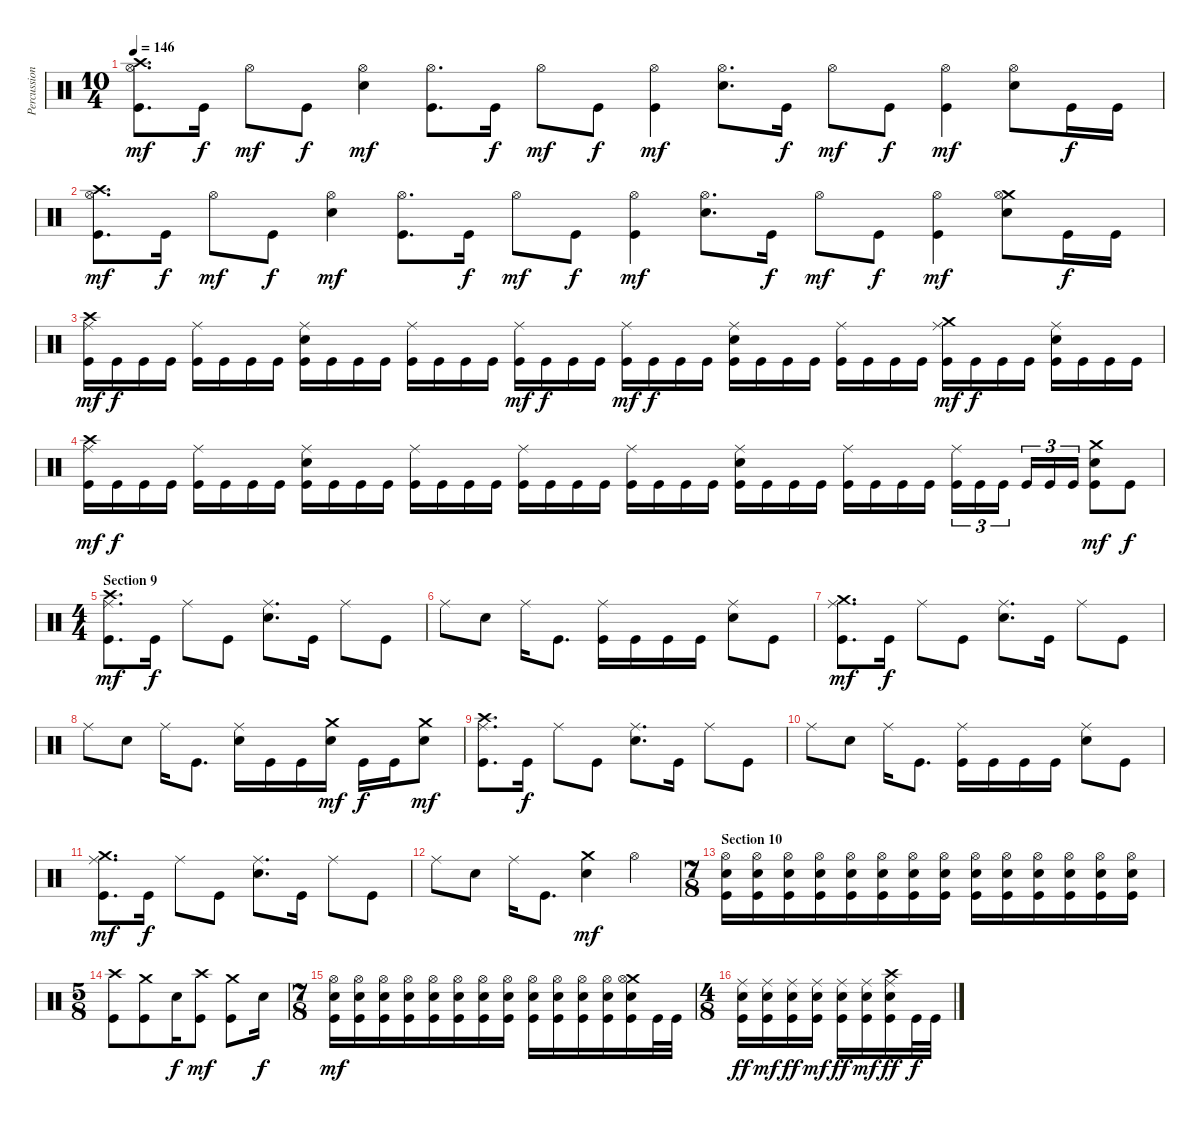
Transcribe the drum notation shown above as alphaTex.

\track ("Percussion" "Percussion") {instrument percussion}
\staff {score}
\articulation defaults
\ts (10 4)
\tempo 146
\clef neutral
\ks c
("Crash high (hit)" "Hi-Hat (open)" "Kick (hit)").8{d dy mf} "Kick (hit)".16{dy f} "Hi-Hat (open)".8{dy mf} "Kick (hit)".8{dy f} ("Hi-Hat (open)" "Electric Snare (hit)").4{dy mf} ("Hi-Hat (open)" "Kick (hit)").8{d} "Kick (hit)".16{dy f} "Hi-Hat (open)".8{dy mf} "Kick (hit)".8{dy f} ("Hi-Hat (open)" "Kick (hit)").4{dy mf} ("Hi-Hat (open)" "Electric Snare (hit)").8{d} "Kick (hit)".16{dy f} "Hi-Hat (open)".8{dy mf} "Kick (hit)".8{dy f} ("Hi-Hat (open)" "Kick (hit)").4{dy mf} ("Hi-Hat (open)" "Electric Snare (hit)").8 "Kick (hit)".16{dy f} "Kick (hit)".16 |
("Crash high (hit)" "Hi-Hat (open)" "Kick (hit)").8{d dy mf} "Kick (hit)".16{dy f} "Hi-Hat (open)".8{dy mf} "Kick (hit)".8{dy f} ("Hi-Hat (open)" "Electric Snare (hit)").4{dy mf} ("Hi-Hat (open)" "Kick (hit)").8{d} "Kick (hit)".16{dy f} "Hi-Hat (open)".8{dy mf} "Kick (hit)".8{dy f} ("Hi-Hat (open)" "Kick (hit)").4{dy mf} ("Hi-Hat (open)" "Electric Snare (hit)").8{d} "Kick (hit)".16{dy f} "Hi-Hat (open)".8{dy mf} "Kick (hit)".8{dy f} ("Hi-Hat (open)" "Kick (hit)").4{dy mf} ("Crash medium (hit)" "Hi-Hat (open)" "Electric Snare (hit)").8 "Kick (hit)".16{dy f} "Kick (hit)".16 |
("Crash high (hit)" "Ride (middle)" "Kick (hit)").16{dy mf} "Kick (hit)".16{dy f} "Kick (hit)".16 "Kick (hit)".16 ("Ride (middle)" "Kick (hit)").16 "Kick (hit)".16 "Kick (hit)".16 "Kick (hit)".16 ("Ride (middle)" "Electric Snare (hit)" "Kick (hit)").16 "Kick (hit)".16 "Kick (hit)".16 "Kick (hit)".16 ("Ride (middle)" "Kick (hit)").16 "Kick (hit)".16 "Kick (hit)".16 "Kick (hit)".16 ("Ride (middle)" "Kick (hit)").16{dy mf} "Kick (hit)".16{dy f} "Kick (hit)".16 "Kick (hit)".16 ("Ride (middle)" "Kick (hit)").16{dy mf} "Kick (hit)".16{dy f} "Kick (hit)".16 "Kick (hit)".16 ("Ride (middle)" "Electric Snare (hit)" "Kick (hit)").16 "Kick (hit)".16 "Kick (hit)".16 "Kick (hit)".16 ("Ride (middle)" "Kick (hit)").16 "Kick (hit)".16 "Kick (hit)".16 "Kick (hit)".16 ("Crash medium (hit)" "Ride (middle)" "Kick (hit)").16{dy mf} "Kick (hit)".16{dy f} "Kick (hit)".16 "Kick (hit)".16 ("Ride (middle)" "Electric Snare (hit)" "Kick (hit)").16 "Kick (hit)".16 "Kick (hit)".16 "Kick (hit)".16 |
("Crash high (hit)" "Ride (middle)" "Kick (hit)").16{dy mf} "Kick (hit)".16{dy f} "Kick (hit)".16 "Kick (hit)".16 ("Ride (middle)" "Kick (hit)").16 "Kick (hit)".16 "Kick (hit)".16 "Kick (hit)".16 ("Ride (middle)" "Electric Snare (hit)" "Kick (hit)").16 "Kick (hit)".16 "Kick (hit)".16 "Kick (hit)".16 ("Ride (middle)" "Kick (hit)").16 "Kick (hit)".16 "Kick (hit)".16 "Kick (hit)".16 ("Ride (middle)" "Kick (hit)").16 "Kick (hit)".16 "Kick (hit)".16 "Kick (hit)".16 ("Ride (middle)" "Kick (hit)").16 "Kick (hit)".16 "Kick (hit)".16 "Kick (hit)".16 ("Ride (middle)" "Electric Snare (hit)" "Kick (hit)").16 "Kick (hit)".16 "Kick (hit)".16 "Kick (hit)".16 ("Ride (middle)" "Kick (hit)").16 "Kick (hit)".16 "Kick (hit)".16 "Kick (hit)".16 ("Ride (middle)" "Kick (hit)").16{tu (3 2)} "Kick (hit)".16{tu (3 2)} "Kick (hit)".16{tu (3 2) beam splitsecondary} "Kick (hit)".16{tu (3 2)} "Kick (hit)".16{tu (3 2)} "Kick (hit)".16{tu (3 2)} ("Crash medium (hit)" "Electric Snare (hit)" "Kick (hit)").8{dy mf} "Kick (hit)".8{dy f} |
\ts (4 4)
\section ("" "Section 9")
("Crash high (hit)" "Ride (middle)" "Kick (hit)").8{d dy mf} "Kick (hit)".16{dy f} "Ride (middle)".8 "Kick (hit)".8 ("Ride (middle)" "Electric Snare (hit)").8{d} "Kick (hit)".16 "Ride (middle)".8 "Kick (hit)".8 |
"Ride (middle)".8 "Electric Snare (hit)".8 "Ride (middle)".16 "Kick (hit)".8{d} ("Ride (middle)" "Kick (hit)").16 "Kick (hit)".16 "Kick (hit)".16 "Kick (hit)".16 ("Ride (middle)" "Electric Snare (hit)").8 "Kick (hit)".8 |
("Crash medium (hit)" "Ride (middle)" "Kick (hit)").8{d dy mf} "Kick (hit)".16{dy f} "Ride (middle)".8 "Kick (hit)".8 ("Ride (middle)" "Electric Snare (hit)").8{d} "Kick (hit)".16 "Ride (middle)".8 "Kick (hit)".8 |
"Ride (middle)".8 "Electric Snare (hit)".8 "Ride (middle)".16 "Kick (hit)".8{d} ("Ride (middle)" "Electric Snare (hit)").16 "Kick (hit)".16 "Kick (hit)".16 ("Crash medium (hit)" "Electric Snare (hit)").16{dy mf} "Kick (hit)".16{dy f} "Kick (hit)".16 ("Crash medium (hit)" "Electric Snare (hit)").8{dy mf} |
("Crash high (hit)" "Ride (middle)" "Kick (hit)").8{d} "Kick (hit)".16{dy f} "Ride (middle)".8 "Kick (hit)".8 ("Ride (middle)" "Electric Snare (hit)").8{d} "Kick (hit)".16 "Ride (middle)".8 "Kick (hit)".8 |
"Ride (middle)".8 "Electric Snare (hit)".8 "Ride (middle)".16 "Kick (hit)".8{d} ("Ride (middle)" "Kick (hit)").16 "Kick (hit)".16 "Kick (hit)".16 "Kick (hit)".16 ("Ride (middle)" "Electric Snare (hit)").8 "Kick (hit)".8 |
("Crash medium (hit)" "Ride (middle)" "Kick (hit)").8{d dy mf} "Kick (hit)".16{dy f} "Ride (middle)".8 "Kick (hit)".8 ("Ride (middle)" "Electric Snare (hit)").8{d} "Kick (hit)".16 "Ride (middle)".8 "Kick (hit)".8 |
"Ride (middle)".8 "Electric Snare (hit)".8 "Ride (middle)".16 "Kick (hit)".8{d} ("Crash medium (hit)" "Electric Snare (hit)").4{dy mf} "Hi-Hat (open)".4 |
\ts (7 8)
\section ("" "Section 10")
("Hi-Hat (open)" "Electric Snare (hit)" "Kick (hit)").16 ("Hi-Hat (open)" "Electric Snare (hit)" "Kick (hit)").16 ("Hi-Hat (open)" "Electric Snare (hit)" "Kick (hit)").16 ("Hi-Hat (open)" "Electric Snare (hit)" "Kick (hit)").16 ("Hi-Hat (open)" "Electric Snare (hit)" "Kick (hit)").16 ("Hi-Hat (open)" "Electric Snare (hit)" "Kick (hit)").16 ("Hi-Hat (open)" "Electric Snare (hit)" "Kick (hit)").16 ("Hi-Hat (open)" "Electric Snare (hit)" "Kick (hit)").16 ("Hi-Hat (open)" "Electric Snare (hit)" "Kick (hit)").16 ("Hi-Hat (open)" "Electric Snare (hit)" "Kick (hit)").16 ("Hi-Hat (open)" "Electric Snare (hit)" "Kick (hit)").16 ("Hi-Hat (open)" "Electric Snare (hit)" "Kick (hit)").16 ("Hi-Hat (open)" "Electric Snare (hit)" "Kick (hit)").16 ("Hi-Hat (open)" "Electric Snare (hit)" "Kick (hit)").16 |
\ts (5 8)
("Crash high (hit)" "Kick (hit)").8 ("Crash medium (hit)" "Kick (hit)").8 "Electric Snare (hit)".16{dy f} ("Crash high (hit)" "Kick (hit)").8{dy mf} ("Crash medium (hit)" "Kick (hit)").8 "Electric Snare (hit)".16{dy f} |
\ts (7 8)
("Hi-Hat (open)" "Electric Snare (hit)" "Kick (hit)").16{dy mf} ("Hi-Hat (open)" "Electric Snare (hit)" "Kick (hit)").16 ("Hi-Hat (open)" "Electric Snare (hit)" "Kick (hit)").16 ("Hi-Hat (open)" "Electric Snare (hit)" "Kick (hit)").16 ("Hi-Hat (open)" "Electric Snare (hit)" "Kick (hit)").16 ("Hi-Hat (open)" "Electric Snare (hit)" "Kick (hit)").16 ("Hi-Hat (open)" "Electric Snare (hit)" "Kick (hit)").16 ("Hi-Hat (open)" "Electric Snare (hit)" "Kick (hit)").16 ("Hi-Hat (open)" "Electric Snare (hit)" "Kick (hit)").16 ("Hi-Hat (open)" "Electric Snare (hit)" "Kick (hit)").16 ("Hi-Hat (open)" "Electric Snare (hit)" "Kick (hit)").16 ("Hi-Hat (open)" "Electric Snare (hit)" "Kick (hit)").16 ("Crash medium (hit)" "Hi-Hat (open)" "Electric Snare (hit)" "Kick (hit)").16 "Kick (hit)".32 "Kick (hit)".32 |
\ts (4 8)
("Ride (middle)" "Electric Snare (hit)" "Kick (hit)").16{dy ff} ("Ride (middle)" "Electric Snare (hit)" "Kick (hit)").16{dy mf} ("Ride (middle)" "Electric Snare (hit)" "Kick (hit)").16{dy ff} ("Ride (middle)" "Electric Snare (hit)" "Kick (hit)").16{dy mf} ("Ride (middle)" "Electric Snare (hit)" "Kick (hit)").16{dy ff} ("Ride (middle)" "Electric Snare (hit)" "Kick (hit)").16{dy mf} ("Crash high (hit)" "Ride (middle)" "Electric Snare (hit)" "Kick (hit)").16{dy ff} "Kick (hit)".32{dy f} "Kick (hit)".32
